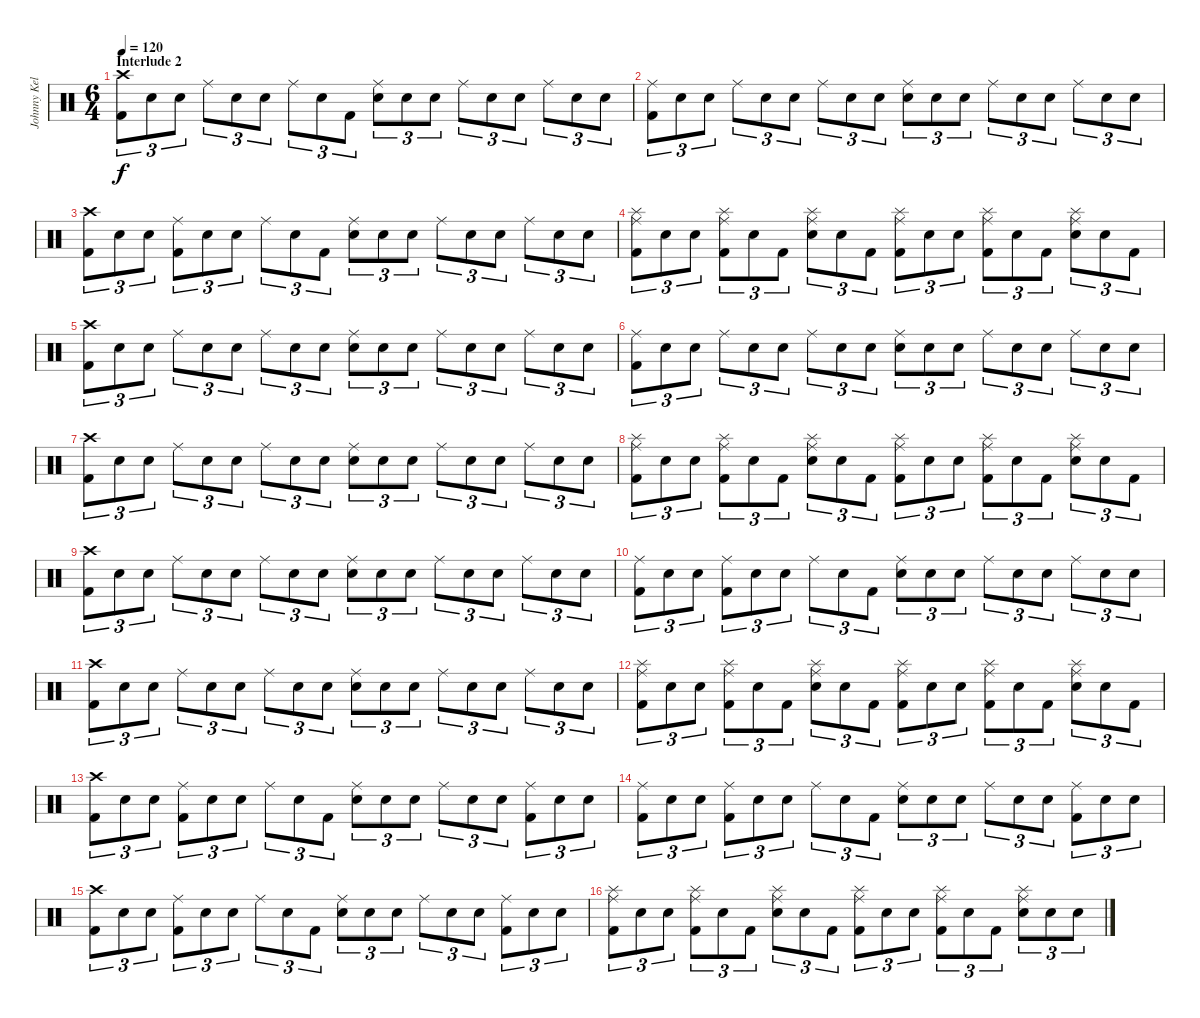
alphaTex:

\track ("Johnny Kelly - Drums" "Johnny Kel") {instrument percussion}
\staff {score}
\articulation defaults
\ts (6 4)
\section ("" "Interlude 2")
\tempo 120
\clef neutral
\ks c
("Crash high (hit)" "Kick (hit) 2").8{tu (3 2) dy f volume 16 balance 8} "Snare (hit)".8{tu (3 2)} "Snare (hit)".8{tu (3 2)} "Ride (middle)".8{tu (3 2)} "Snare (hit)".8{tu (3 2)} "Snare (hit)".8{tu (3 2)} "Ride (middle)".8{tu (3 2)} "Snare (hit)".8{tu (3 2)} "Kick (hit) 2".8{tu (3 2)} ("Ride (middle)" "Electric Snare (hit)").8{tu (3 2)} "Snare (hit)".8{tu (3 2)} "Snare (hit)".8{tu (3 2)} "Ride (middle)".8{tu (3 2)} "Snare (hit)".8{tu (3 2)} "Snare (hit)".8{tu (3 2)} "Ride (middle)".8{tu (3 2)} "Snare (hit)".8{tu (3 2)} "Snare (hit)".8{tu (3 2)} |
("Ride (middle)" "Kick (hit) 2").8{tu (3 2)} "Snare (hit)".8{tu (3 2)} "Snare (hit)".8{tu (3 2)} "Ride (middle)".8{tu (3 2)} "Snare (hit)".8{tu (3 2)} "Snare (hit)".8{tu (3 2)} "Ride (middle)".8{tu (3 2)} "Snare (hit)".8{tu (3 2)} "Snare (hit)".8{tu (3 2)} ("Ride (middle)" "Electric Snare (hit)").8{tu (3 2)} "Snare (hit)".8{tu (3 2)} "Snare (hit)".8{tu (3 2)} "Ride (middle)".8{tu (3 2)} "Snare (hit)".8{tu (3 2)} "Snare (hit)".8{tu (3 2)} "Ride (middle)".8{tu (3 2)} "Snare (hit)".8{tu (3 2)} "Snare (hit)".8{tu (3 2)} |
("Crash high (hit)" "Kick (hit) 2").8{tu (3 2)} "Snare (hit)".8{tu (3 2)} "Snare (hit)".8{tu (3 2)} ("Ride (middle)" "Kick (hit) 2").8{tu (3 2)} "Snare (hit)".8{tu (3 2)} "Snare (hit)".8{tu (3 2)} "Ride (middle)".8{tu (3 2)} "Snare (hit)".8{tu (3 2)} "Kick (hit) 2".8{tu (3 2)} ("Ride (middle)" "Electric Snare (hit)").8{tu (3 2)} "Snare (hit)".8{tu (3 2)} "Snare (hit)".8{tu (3 2)} "Ride (middle)".8{tu (3 2)} "Snare (hit)".8{tu (3 2)} "Snare (hit)".8{tu (3 2)} "Ride (middle)".8{tu (3 2)} "Snare (hit)".8{tu (3 2)} "Snare (hit)".8{tu (3 2)} |
("Ride (middle)" "Splash (hit)" "Kick (hit) 2").8{tu (3 2)} "Snare (hit)".8{tu (3 2)} "Electric Snare (hit)".8{tu (3 2)} ("Ride (middle)" "Splash (hit)" "Kick (hit) 2").8{tu (3 2)} "Snare (hit)".8{tu (3 2)} "Kick (hit) 2".8{tu (3 2)} ("Ride (middle)" "Splash (hit)" "Electric Snare (hit)").8{tu (3 2)} "Snare (hit)".8{tu (3 2)} "Kick (hit) 2".8{tu (3 2)} ("Ride (middle)" "Splash (hit)" "Kick (hit) 2").8{tu (3 2)} "Snare (hit)".8{tu (3 2)} "Electric Snare (hit)".8{tu (3 2)} ("Ride (middle)" "Splash (hit)" "Kick (hit) 2").8{tu (3 2)} "Snare (hit)".8{tu (3 2)} "Kick (hit) 2".8{tu (3 2)} ("Ride (middle)" "Splash (hit)" "Electric Snare (hit)").8{tu (3 2)} "Snare (hit)".8{tu (3 2)} "Kick (hit) 2".8{tu (3 2)} |
("Crash high (hit)" "Kick (hit) 2").8{tu (3 2)} "Snare (hit)".8{tu (3 2)} "Snare (hit)".8{tu (3 2)} "Ride (middle)".8{tu (3 2)} "Snare (hit)".8{tu (3 2)} "Snare (hit)".8{tu (3 2)} "Ride (middle)".8{tu (3 2)} "Snare (hit)".8{tu (3 2)} "Snare (hit)".8{tu (3 2)} ("Ride (middle)" "Electric Snare (hit)").8{tu (3 2)} "Snare (hit)".8{tu (3 2)} "Snare (hit)".8{tu (3 2)} "Ride (middle)".8{tu (3 2)} "Snare (hit)".8{tu (3 2)} "Snare (hit)".8{tu (3 2)} "Ride (middle)".8{tu (3 2)} "Snare (hit)".8{tu (3 2)} "Snare (hit)".8{tu (3 2)} |
("Ride (middle)" "Kick (hit) 2").8{tu (3 2)} "Snare (hit)".8{tu (3 2)} "Snare (hit)".8{tu (3 2)} "Ride (middle)".8{tu (3 2)} "Snare (hit)".8{tu (3 2)} "Snare (hit)".8{tu (3 2)} "Ride (middle)".8{tu (3 2)} "Snare (hit)".8{tu (3 2)} "Snare (hit)".8{tu (3 2)} ("Ride (middle)" "Electric Snare (hit)").8{tu (3 2)} "Snare (hit)".8{tu (3 2)} "Snare (hit)".8{tu (3 2)} "Ride (middle)".8{tu (3 2)} "Snare (hit)".8{tu (3 2)} "Snare (hit)".8{tu (3 2)} "Ride (middle)".8{tu (3 2)} "Snare (hit)".8{tu (3 2)} "Snare (hit)".8{tu (3 2)} |
("Crash high (hit)" "Kick (hit) 2").8{tu (3 2)} "Snare (hit)".8{tu (3 2)} "Snare (hit)".8{tu (3 2)} "Ride (middle)".8{tu (3 2)} "Snare (hit)".8{tu (3 2)} "Snare (hit)".8{tu (3 2)} "Ride (middle)".8{tu (3 2)} "Snare (hit)".8{tu (3 2)} "Snare (hit)".8{tu (3 2)} ("Ride (middle)" "Electric Snare (hit)").8{tu (3 2)} "Snare (hit)".8{tu (3 2)} "Snare (hit)".8{tu (3 2)} "Ride (middle)".8{tu (3 2)} "Snare (hit)".8{tu (3 2)} "Snare (hit)".8{tu (3 2)} "Ride (middle)".8{tu (3 2)} "Snare (hit)".8{tu (3 2)} "Snare (hit)".8{tu (3 2)} |
("Ride (middle)" "Splash (hit)" "Kick (hit) 2").8{tu (3 2)} "Snare (hit)".8{tu (3 2)} "Electric Snare (hit)".8{tu (3 2)} ("Ride (middle)" "Splash (hit)" "Kick (hit) 2").8{tu (3 2)} "Snare (hit)".8{tu (3 2)} "Kick (hit) 2".8{tu (3 2)} ("Ride (middle)" "Splash (hit)" "Electric Snare (hit)").8{tu (3 2)} "Snare (hit)".8{tu (3 2)} "Kick (hit) 2".8{tu (3 2)} ("Ride (middle)" "Splash (hit)" "Kick (hit) 2").8{tu (3 2)} "Snare (hit)".8{tu (3 2)} "Electric Snare (hit)".8{tu (3 2)} ("Ride (middle)" "Splash (hit)" "Kick (hit) 2").8{tu (3 2)} "Snare (hit)".8{tu (3 2)} "Kick (hit) 2".8{tu (3 2)} ("Ride (middle)" "Splash (hit)" "Electric Snare (hit)").8{tu (3 2)} "Snare (hit)".8{tu (3 2)} "Kick (hit) 2".8{tu (3 2)} |
("Crash high (hit)" "Kick (hit) 2").8{tu (3 2)} "Snare (hit)".8{tu (3 2)} "Snare (hit)".8{tu (3 2)} "Ride (middle)".8{tu (3 2)} "Snare (hit)".8{tu (3 2)} "Snare (hit)".8{tu (3 2)} "Ride (middle)".8{tu (3 2)} "Snare (hit)".8{tu (3 2)} "Snare (hit)".8{tu (3 2)} ("Ride (middle)" "Electric Snare (hit)").8{tu (3 2)} "Snare (hit)".8{tu (3 2)} "Snare (hit)".8{tu (3 2)} "Ride (middle)".8{tu (3 2)} "Snare (hit)".8{tu (3 2)} "Snare (hit)".8{tu (3 2)} "Ride (middle)".8{tu (3 2)} "Snare (hit)".8{tu (3 2)} "Snare (hit)".8{tu (3 2)} |
("Ride (middle)" "Kick (hit) 2").8{tu (3 2)} "Snare (hit)".8{tu (3 2)} "Snare (hit)".8{tu (3 2)} ("Ride (middle)" "Kick (hit) 2").8{tu (3 2)} "Snare (hit)".8{tu (3 2)} "Snare (hit)".8{tu (3 2)} "Ride (middle)".8{tu (3 2)} "Snare (hit)".8{tu (3 2)} "Kick (hit) 2".8{tu (3 2)} ("Ride (middle)" "Electric Snare (hit)").8{tu (3 2)} "Snare (hit)".8{tu (3 2)} "Snare (hit)".8{tu (3 2)} "Ride (middle)".8{tu (3 2)} "Snare (hit)".8{tu (3 2)} "Snare (hit)".8{tu (3 2)} "Ride (middle)".8{tu (3 2)} "Snare (hit)".8{tu (3 2)} "Snare (hit)".8{tu (3 2)} |
("Crash high (hit)" "Kick (hit) 2").8{tu (3 2)} "Snare (hit)".8{tu (3 2)} "Snare (hit)".8{tu (3 2)} "Ride (middle)".8{tu (3 2)} "Snare (hit)".8{tu (3 2)} "Snare (hit)".8{tu (3 2)} "Ride (middle)".8{tu (3 2)} "Snare (hit)".8{tu (3 2)} "Snare (hit)".8{tu (3 2)} ("Ride (middle)" "Electric Snare (hit)").8{tu (3 2)} "Snare (hit)".8{tu (3 2)} "Snare (hit)".8{tu (3 2)} "Ride (middle)".8{tu (3 2)} "Snare (hit)".8{tu (3 2)} "Snare (hit)".8{tu (3 2)} "Ride (middle)".8{tu (3 2)} "Snare (hit)".8{tu (3 2)} "Snare (hit)".8{tu (3 2)} |
("Ride (middle)" "Splash (hit)" "Kick (hit) 2").8{tu (3 2)} "Snare (hit)".8{tu (3 2)} "Electric Snare (hit)".8{tu (3 2)} ("Ride (middle)" "Splash (hit)" "Kick (hit) 2").8{tu (3 2)} "Snare (hit)".8{tu (3 2)} "Kick (hit) 2".8{tu (3 2)} ("Ride (middle)" "Splash (hit)" "Electric Snare (hit)").8{tu (3 2)} "Snare (hit)".8{tu (3 2)} "Kick (hit) 2".8{tu (3 2)} ("Ride (middle)" "Splash (hit)" "Kick (hit) 2").8{tu (3 2)} "Snare (hit)".8{tu (3 2)} "Electric Snare (hit)".8{tu (3 2)} ("Ride (middle)" "Splash (hit)" "Kick (hit) 2").8{tu (3 2)} "Snare (hit)".8{tu (3 2)} "Kick (hit) 2".8{tu (3 2)} ("Ride (middle)" "Splash (hit)" "Electric Snare (hit)").8{tu (3 2)} "Snare (hit)".8{tu (3 2)} "Kick (hit) 2".8{tu (3 2)} |
("Crash high (hit)" "Kick (hit) 2").8{tu (3 2)} "Snare (hit)".8{tu (3 2)} "Snare (hit)".8{tu (3 2)} ("Ride (middle)" "Kick (hit) 2").8{tu (3 2)} "Snare (hit)".8{tu (3 2)} "Snare (hit)".8{tu (3 2)} "Ride (middle)".8{tu (3 2)} "Snare (hit)".8{tu (3 2)} "Kick (hit) 2".8{tu (3 2)} ("Ride (middle)" "Electric Snare (hit)").8{tu (3 2)} "Snare (hit)".8{tu (3 2)} "Snare (hit)".8{tu (3 2)} "Ride (middle)".8{tu (3 2)} "Snare (hit)".8{tu (3 2)} "Electric Snare (hit)".8{tu (3 2)} ("Ride (middle)" "Kick (hit) 2").8{tu (3 2)} "Snare (hit)".8{tu (3 2)} "Electric Snare (hit)".8{tu (3 2)} |
("Ride (middle)" "Kick (hit) 2").8{tu (3 2)} "Snare (hit)".8{tu (3 2)} "Snare (hit)".8{tu (3 2)} ("Ride (middle)" "Kick (hit) 2").8{tu (3 2)} "Snare (hit)".8{tu (3 2)} "Snare (hit)".8{tu (3 2)} "Ride (middle)".8{tu (3 2)} "Snare (hit)".8{tu (3 2)} "Kick (hit) 2".8{tu (3 2)} ("Ride (middle)" "Electric Snare (hit)").8{tu (3 2)} "Snare (hit)".8{tu (3 2)} "Snare (hit)".8{tu (3 2)} "Ride (middle)".8{tu (3 2)} "Snare (hit)".8{tu (3 2)} "Electric Snare (hit)".8{tu (3 2)} ("Ride (middle)" "Kick (hit) 2").8{tu (3 2)} "Snare (hit)".8{tu (3 2)} "Electric Snare (hit)".8{tu (3 2)} |
("Crash high (hit)" "Kick (hit) 2").8{tu (3 2)} "Snare (hit)".8{tu (3 2)} "Snare (hit)".8{tu (3 2)} ("Ride (middle)" "Kick (hit) 2").8{tu (3 2)} "Snare (hit)".8{tu (3 2)} "Snare (hit)".8{tu (3 2)} "Ride (middle)".8{tu (3 2)} "Snare (hit)".8{tu (3 2)} "Kick (hit) 2".8{tu (3 2)} ("Ride (middle)" "Electric Snare (hit)").8{tu (3 2)} "Snare (hit)".8{tu (3 2)} "Snare (hit)".8{tu (3 2)} "Ride (middle)".8{tu (3 2)} "Snare (hit)".8{tu (3 2)} "Electric Snare (hit)".8{tu (3 2)} ("Ride (middle)" "Kick (hit) 2").8{tu (3 2)} "Snare (hit)".8{tu (3 2)} "Electric Snare (hit)".8{tu (3 2)} |
("Ride (middle)" "Splash (hit)" "Kick (hit) 2").8{tu (3 2)} "Snare (hit)".8{tu (3 2)} "Electric Snare (hit)".8{tu (3 2)} ("Ride (middle)" "Splash (hit)" "Kick (hit) 2").8{tu (3 2)} "Snare (hit)".8{tu (3 2)} "Kick (hit) 2".8{tu (3 2)} ("Ride (middle)" "Splash (hit)" "Electric Snare (hit)").8{tu (3 2)} "Snare (hit)".8{tu (3 2)} "Kick (hit) 2".8{tu (3 2)} ("Ride (middle)" "Splash (hit)" "Kick (hit) 2").8{tu (3 2)} "Snare (hit)".8{tu (3 2)} "Electric Snare (hit)".8{tu (3 2)} ("Ride (middle)" "Splash (hit)" "Kick (hit) 2").8{tu (3 2)} "Snare (hit)".8{tu (3 2)} "Kick (hit) 2".8{tu (3 2)} ("Ride (middle)" "Splash (hit)" "Electric Snare (hit)").8{tu (3 2)} "Snare (hit)".8{tu (3 2)} "Electric Snare (hit)".8{tu (3 2)}
